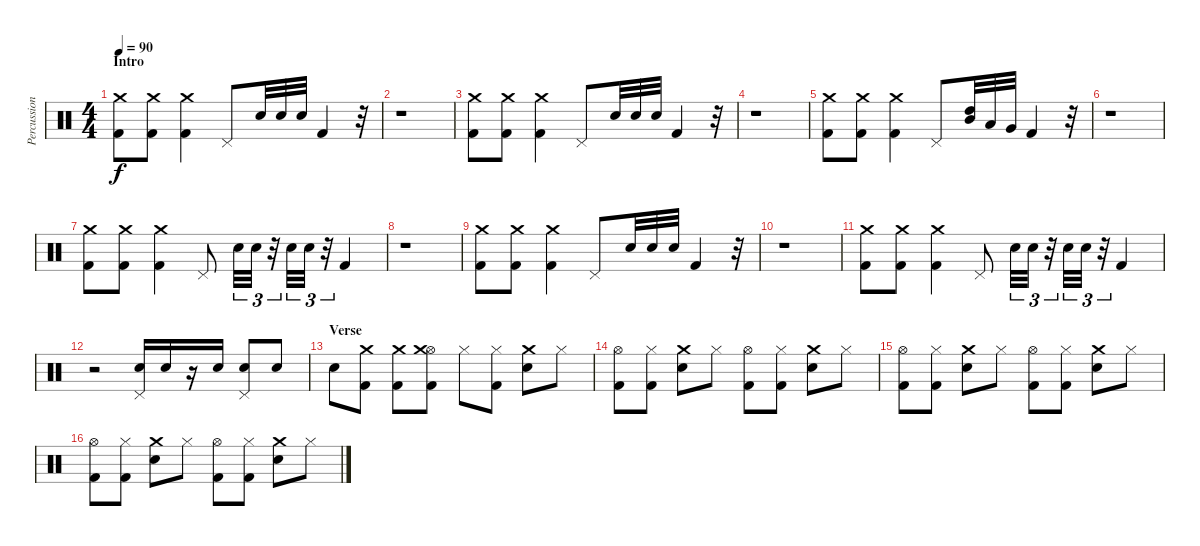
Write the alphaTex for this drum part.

\track ("Percussions" "Percussion") {instrument percussion}
\staff {score}
\articulation defaults
\ts (4 4)
\section ("" "Intro")
\tempo 90
\clef neutral
\ks c
("Crash medium (hit)" "Kick (hit) 2").8{dy f} ("Crash medium (hit)" "Kick (hit) 2").8 ("Crash medium (hit)" "Kick (hit) 2").4 "Pedal Hi-Hat (hit)".8 "Electric Snare (hit)".32 "Snare (hit) 2".32 "Electric Snare (hit)".32 "Kick (hit) 2".4 r.32 |
r.1 |
("Crash medium (hit)" "Kick (hit) 2").8 ("Crash medium (hit)" "Kick (hit) 2").8 ("Crash medium (hit)" "Kick (hit) 2").4 "Pedal Hi-Hat (hit)".8 "Electric Snare (hit)".32 "Snare (hit) 2".32 "Electric Snare (hit)".32 "Kick (hit) 2".4 r.32 |
r.1 |
("Crash medium (hit)" "Kick (hit) 2").8 ("Crash medium (hit)" "Kick (hit) 2").8 ("Crash medium (hit)" "Kick (hit) 2").4 "Pedal Hi-Hat (hit)".8 ("Mid Tom (hit)" "High Tom (hit)").32 "Low Tom (hit)".32 "Very Low Tom (hit)".32 "Kick (hit) 2".4 r.32 |
r.1 |
("Crash medium (hit)" "Kick (hit) 2").8 ("Crash medium (hit)" "Kick (hit) 2").8 ("Crash medium (hit)" "Kick (hit) 2").4 "Pedal Hi-Hat (hit)".8 "Electric Snare (hit)".32{tu (3 2)} "Electric Snare (hit)".32{tu (3 2)} r.32{tu (3 2)} "Electric Snare (hit)".32{tu (3 2)} "Electric Snare (hit)".32{tu (3 2)} r.32{tu (3 2)} "Kick (hit) 2".4 |
r.1 |
("Crash medium (hit)" "Kick (hit) 2").8 ("Crash medium (hit)" "Kick (hit) 2").8 ("Crash medium (hit)" "Kick (hit) 2").4 "Pedal Hi-Hat (hit)".8 "Electric Snare (hit)".32 "Snare (hit) 2".32 "Electric Snare (hit)".32 "Kick (hit) 2".4 r.32 |
r.1 |
("Crash medium (hit)" "Kick (hit) 2").8 ("Crash medium (hit)" "Kick (hit) 2").8 ("Crash medium (hit)" "Kick (hit) 2").4 "Pedal Hi-Hat (hit)".8 "Electric Snare (hit)".32{tu (3 2)} "Electric Snare (hit)".32{tu (3 2)} r.32{tu (3 2)} "Electric Snare (hit)".32{tu (3 2)} "Electric Snare (hit)".32{tu (3 2)} r.32{tu (3 2)} "Kick (hit) 2".4 |
r.2 ("Electric Snare (hit)" "Pedal Hi-Hat (hit)").16 "Electric Snare (hit)".16 r.16 "Electric Snare (hit)".16 ("Electric Snare (hit)" "Pedal Hi-Hat (hit)").8 "Electric Snare (hit)".8 |
\section ("" "Verse")
"Electric Snare (hit)".8 ("Crash medium (hit)" "Kick (hit) 2").8 ("Crash medium (hit)" "Kick (hit) 2").8 ("Hi-Hat (open)" "Crash medium (hit)" "Kick (hit) 2").8 "Hi-Hat (closed)".8 ("Hi-Hat (closed)" "Kick (hit) 2").8 ("Crash medium (hit)" "Electric Snare (hit)").8 "Hi-Hat (closed)".8 |
("Hi-Hat (open)" "Kick (hit) 2").8 ("Hi-Hat (closed)" "Kick (hit) 2").8 ("Crash medium (hit)" "Electric Snare (hit)").8 "Hi-Hat (closed)".8 ("Kick (hit) 2" "Hi-Hat (open)").8 ("Hi-Hat (closed)" "Kick (hit) 2").8 ("Crash medium (hit)" "Electric Snare (hit)").8 "Hi-Hat (closed)".8 |
("Hi-Hat (open)" "Kick (hit) 2").8 ("Hi-Hat (closed)" "Kick (hit) 2").8 ("Crash medium (hit)" "Electric Snare (hit)").8 "Hi-Hat (closed)".8 ("Kick (hit) 2" "Hi-Hat (open)").8 ("Hi-Hat (closed)" "Kick (hit) 2").8 ("Crash medium (hit)" "Electric Snare (hit)").8 "Hi-Hat (closed)".8 |
("Hi-Hat (open)" "Kick (hit) 2").8 ("Hi-Hat (closed)" "Kick (hit) 2").8 ("Crash medium (hit)" "Electric Snare (hit)").8 "Hi-Hat (closed)".8 ("Kick (hit) 2" "Hi-Hat (open)").8 ("Hi-Hat (closed)" "Kick (hit) 2").8 ("Crash medium (hit)" "Electric Snare (hit)").8 "Hi-Hat (closed)".8
